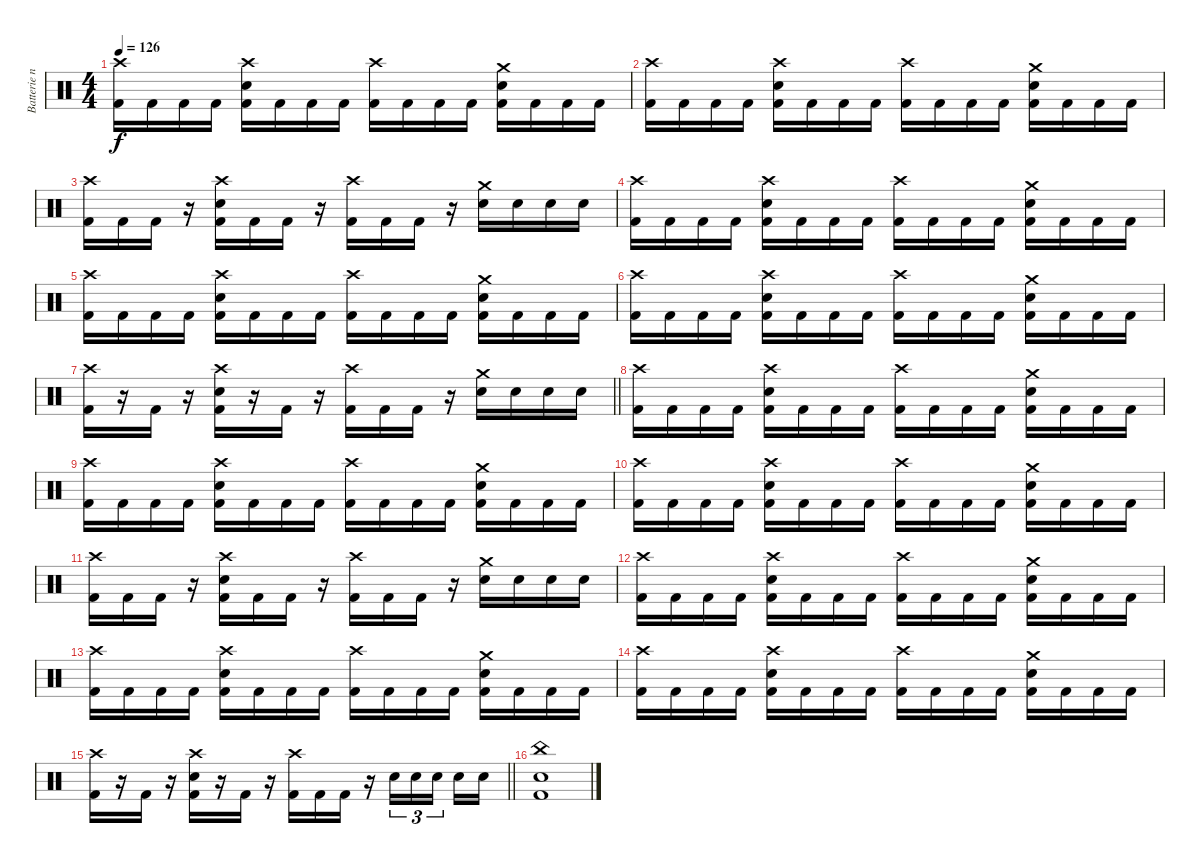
\track ("Batterie n°3" "Batterie n") {instrument percussion}
\staff {score}
\articulation defaults
\ts (4 4)
\tempo 126
\clef neutral
\ks c
("Crash high (hit)" "Kick (hit) 2").16{dy f} "Kick (hit) 2".16 "Kick (hit) 2".16 "Kick (hit) 2".16 ("Crash high (hit)" "Snare (hit) 2" "Kick (hit) 2").16 "Kick (hit) 2".16 "Kick (hit) 2".16 "Kick (hit) 2".16 ("Crash high (hit)" "Kick (hit) 2").16 "Kick (hit) 2".16 "Kick (hit) 2".16 "Kick (hit) 2".16 ("Crash medium (hit)" "Snare (hit) 2" "Kick (hit) 2").16 "Kick (hit) 2".16 "Kick (hit) 2".16 "Kick (hit) 2".16 |
("Crash high (hit)" "Kick (hit) 2").16 "Kick (hit) 2".16 "Kick (hit) 2".16 "Kick (hit) 2".16 ("Crash high (hit)" "Snare (hit) 2" "Kick (hit) 2").16 "Kick (hit) 2".16 "Kick (hit) 2".16 "Kick (hit) 2".16 ("Crash high (hit)" "Kick (hit) 2").16 "Kick (hit) 2".16 "Kick (hit) 2".16 "Kick (hit) 2".16 ("Crash medium (hit)" "Snare (hit) 2" "Kick (hit) 2").16 "Kick (hit) 2".16 "Kick (hit) 2".16 "Kick (hit) 2".16 |
("Crash high (hit)" "Kick (hit) 2").16 "Kick (hit) 2".16 "Kick (hit) 2".16 r.16 ("Crash high (hit)" "Snare (hit) 2" "Kick (hit) 2").16 "Kick (hit) 2".16 "Kick (hit) 2".16 r.16 ("Crash high (hit)" "Kick (hit) 2").16 "Kick (hit) 2".16 "Kick (hit) 2".16 r.16 ("Crash medium (hit)" "Snare (hit) 2").16 "Snare (hit) 2".16 "Snare (hit) 2".16 "Snare (hit) 2".16 |
("Crash high (hit)" "Kick (hit) 2").16 "Kick (hit) 2".16 "Kick (hit) 2".16 "Kick (hit) 2".16 ("Crash high (hit)" "Snare (hit) 2" "Kick (hit) 2").16 "Kick (hit) 2".16 "Kick (hit) 2".16 "Kick (hit) 2".16 ("Crash high (hit)" "Kick (hit) 2").16 "Kick (hit) 2".16 "Kick (hit) 2".16 "Kick (hit) 2".16 ("Crash medium (hit)" "Snare (hit) 2" "Kick (hit) 2").16 "Kick (hit) 2".16 "Kick (hit) 2".16 "Kick (hit) 2".16 |
("Crash high (hit)" "Kick (hit) 2").16 "Kick (hit) 2".16 "Kick (hit) 2".16 "Kick (hit) 2".16 ("Crash high (hit)" "Snare (hit) 2" "Kick (hit) 2").16 "Kick (hit) 2".16 "Kick (hit) 2".16 "Kick (hit) 2".16 ("Crash high (hit)" "Kick (hit) 2").16 "Kick (hit) 2".16 "Kick (hit) 2".16 "Kick (hit) 2".16 ("Crash medium (hit)" "Snare (hit) 2" "Kick (hit) 2").16 "Kick (hit) 2".16 "Kick (hit) 2".16 "Kick (hit) 2".16 |
("Crash high (hit)" "Kick (hit) 2").16 "Kick (hit) 2".16 "Kick (hit) 2".16 "Kick (hit) 2".16 ("Crash high (hit)" "Snare (hit) 2" "Kick (hit) 2").16 "Kick (hit) 2".16 "Kick (hit) 2".16 "Kick (hit) 2".16 ("Crash high (hit)" "Kick (hit) 2").16 "Kick (hit) 2".16 "Kick (hit) 2".16 "Kick (hit) 2".16 ("Crash medium (hit)" "Snare (hit) 2" "Kick (hit) 2").16 "Kick (hit) 2".16 "Kick (hit) 2".16 "Kick (hit) 2".16 |
\barLineRight lightlight
("Crash high (hit)" "Kick (hit) 2").16 r.16 "Kick (hit) 2".16 r.16 ("Crash high (hit)" "Snare (hit) 2" "Kick (hit) 2").16 r.16 "Kick (hit) 2".16 r.16 ("Crash high (hit)" "Kick (hit) 2").16 "Kick (hit) 2".16 "Kick (hit) 2".16 r.16 ("Crash medium (hit)" "Snare (hit) 2").16 "Snare (hit) 2".16 "Snare (hit) 2".16 "Snare (hit) 2".16 |
("Crash high (hit)" "Kick (hit) 2").16 "Kick (hit) 2".16 "Kick (hit) 2".16 "Kick (hit) 2".16 ("Crash high (hit)" "Snare (hit) 2" "Kick (hit) 2").16 "Kick (hit) 2".16 "Kick (hit) 2".16 "Kick (hit) 2".16 ("Crash high (hit)" "Kick (hit) 2").16 "Kick (hit) 2".16 "Kick (hit) 2".16 "Kick (hit) 2".16 ("Crash medium (hit)" "Snare (hit) 2" "Kick (hit) 2").16 "Kick (hit) 2".16 "Kick (hit) 2".16 "Kick (hit) 2".16 |
("Crash high (hit)" "Kick (hit) 2").16 "Kick (hit) 2".16 "Kick (hit) 2".16 "Kick (hit) 2".16 ("Crash high (hit)" "Snare (hit) 2" "Kick (hit) 2").16 "Kick (hit) 2".16 "Kick (hit) 2".16 "Kick (hit) 2".16 ("Crash high (hit)" "Kick (hit) 2").16 "Kick (hit) 2".16 "Kick (hit) 2".16 "Kick (hit) 2".16 ("Crash medium (hit)" "Snare (hit) 2" "Kick (hit) 2").16 "Kick (hit) 2".16 "Kick (hit) 2".16 "Kick (hit) 2".16 |
("Crash high (hit)" "Kick (hit) 2").16 "Kick (hit) 2".16 "Kick (hit) 2".16 "Kick (hit) 2".16 ("Crash high (hit)" "Snare (hit) 2" "Kick (hit) 2").16 "Kick (hit) 2".16 "Kick (hit) 2".16 "Kick (hit) 2".16 ("Crash high (hit)" "Kick (hit) 2").16 "Kick (hit) 2".16 "Kick (hit) 2".16 "Kick (hit) 2".16 ("Crash medium (hit)" "Snare (hit) 2" "Kick (hit) 2").16 "Kick (hit) 2".16 "Kick (hit) 2".16 "Kick (hit) 2".16 |
("Crash high (hit)" "Kick (hit) 2").16 "Kick (hit) 2".16 "Kick (hit) 2".16 r.16 ("Crash high (hit)" "Snare (hit) 2" "Kick (hit) 2").16 "Kick (hit) 2".16 "Kick (hit) 2".16 r.16 ("Crash high (hit)" "Kick (hit) 2").16 "Kick (hit) 2".16 "Kick (hit) 2".16 r.16 ("Crash medium (hit)" "Snare (hit) 2").16 "Snare (hit) 2".16 "Snare (hit) 2".16 "Snare (hit) 2".16 |
("Crash high (hit)" "Kick (hit) 2").16 "Kick (hit) 2".16 "Kick (hit) 2".16 "Kick (hit) 2".16 ("Crash high (hit)" "Snare (hit) 2" "Kick (hit) 2").16 "Kick (hit) 2".16 "Kick (hit) 2".16 "Kick (hit) 2".16 ("Crash high (hit)" "Kick (hit) 2").16 "Kick (hit) 2".16 "Kick (hit) 2".16 "Kick (hit) 2".16 ("Crash medium (hit)" "Snare (hit) 2" "Kick (hit) 2").16 "Kick (hit) 2".16 "Kick (hit) 2".16 "Kick (hit) 2".16 |
("Crash high (hit)" "Kick (hit) 2").16 "Kick (hit) 2".16 "Kick (hit) 2".16 "Kick (hit) 2".16 ("Crash high (hit)" "Snare (hit) 2" "Kick (hit) 2").16 "Kick (hit) 2".16 "Kick (hit) 2".16 "Kick (hit) 2".16 ("Crash high (hit)" "Kick (hit) 2").16 "Kick (hit) 2".16 "Kick (hit) 2".16 "Kick (hit) 2".16 ("Crash medium (hit)" "Snare (hit) 2" "Kick (hit) 2").16 "Kick (hit) 2".16 "Kick (hit) 2".16 "Kick (hit) 2".16 |
("Crash high (hit)" "Kick (hit) 2").16 "Kick (hit) 2".16 "Kick (hit) 2".16 "Kick (hit) 2".16 ("Crash high (hit)" "Snare (hit) 2" "Kick (hit) 2").16 "Kick (hit) 2".16 "Kick (hit) 2".16 "Kick (hit) 2".16 ("Crash high (hit)" "Kick (hit) 2").16 "Kick (hit) 2".16 "Kick (hit) 2".16 "Kick (hit) 2".16 ("Crash medium (hit)" "Snare (hit) 2" "Kick (hit) 2").16 "Kick (hit) 2".16 "Kick (hit) 2".16 "Kick (hit) 2".16 |
\barLineRight lightlight
("Crash high (hit)" "Kick (hit) 2").16 r.16 "Kick (hit) 2".16 r.16 ("Crash high (hit)" "Snare (hit) 2" "Kick (hit) 2").16 r.16 "Kick (hit) 2".16 r.16 ("Crash high (hit)" "Kick (hit) 2").16 "Kick (hit) 2".16 "Kick (hit) 2".16 r.16 "Snare (hit) 2".16{tu (3 2)} "Snare (hit) 2".16{tu (3 2)} "Snare (hit) 2".16{tu (3 2) beam splitsecondary} "Snare (hit) 2".16 "Snare (hit) 2".16 |
("China (hit)" "Snare (hit) 2" "Kick (hit) 2").1
